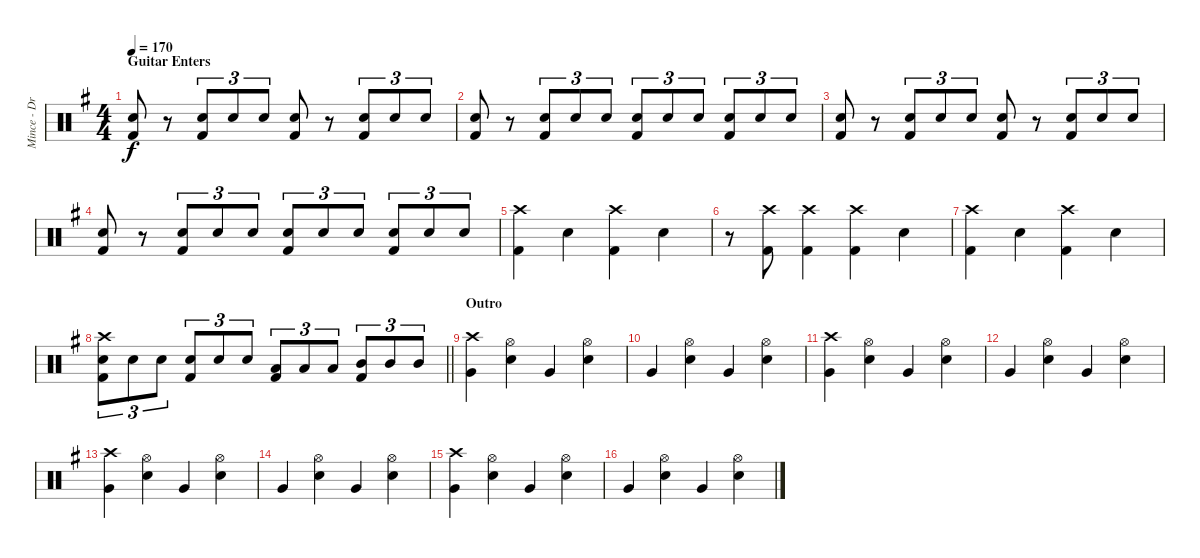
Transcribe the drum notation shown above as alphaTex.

\track ("Mince - Drums" "Mince - Dr") {instrument percussion}
\staff {score}
\articulation defaults
\ts (4 4)
\section ("" "Guitar Enters")
\tempo 170
\clef neutral
\ks g
("Kick (hit) 2" "Snare (hit) 2").8{dy f} r.8 ("Kick (hit) 2" "Snare (hit) 2").8{tu (3 2)} "Snare (hit) 2".8{tu (3 2)} "Snare (hit) 2".8{tu (3 2)} ("Kick (hit) 2" "Snare (hit) 2").8 r.8 ("Kick (hit) 2" "Snare (hit) 2").8{tu (3 2)} "Snare (hit) 2".8{tu (3 2)} "Snare (hit) 2".8{tu (3 2)} |
("Kick (hit) 2" "Snare (hit) 2").8 r.8 ("Kick (hit) 2" "Snare (hit) 2").8{tu (3 2)} "Snare (hit) 2".8{tu (3 2)} "Snare (hit) 2".8{tu (3 2)} ("Kick (hit) 2" "Snare (hit) 2").8{tu (3 2)} "Snare (hit) 2".8{tu (3 2)} "Snare (hit) 2".8{tu (3 2)} ("Kick (hit) 2" "Snare (hit) 2").8{tu (3 2)} "Snare (hit) 2".8{tu (3 2)} "Snare (hit) 2".8{tu (3 2)} |
("Kick (hit) 2" "Snare (hit) 2").8 r.8 ("Kick (hit) 2" "Snare (hit) 2").8{tu (3 2)} "Snare (hit) 2".8{tu (3 2)} "Snare (hit) 2".8{tu (3 2)} ("Kick (hit) 2" "Snare (hit) 2").8 r.8 ("Kick (hit) 2" "Snare (hit) 2").8{tu (3 2)} "Snare (hit) 2".8{tu (3 2)} "Snare (hit) 2".8{tu (3 2)} |
("Kick (hit) 2" "Snare (hit) 2").8 r.8 ("Kick (hit) 2" "Snare (hit) 2").8{tu (3 2)} "Snare (hit) 2".8{tu (3 2)} "Snare (hit) 2".8{tu (3 2)} ("Kick (hit) 2" "Snare (hit) 2").8{tu (3 2)} "Snare (hit) 2".8{tu (3 2)} "Snare (hit) 2".8{tu (3 2)} ("Kick (hit) 2" "Snare (hit) 2").8{tu (3 2)} "Snare (hit) 2".8{tu (3 2)} "Snare (hit) 2".8{tu (3 2)} |
("Kick (hit) 2" "Crash high (hit)").4 "Snare (hit) 2".4 ("Kick (hit) 2" "Crash high (hit)").4 "Snare (hit) 2".4 |
r.8 ("Kick (hit) 2" "Crash high (hit)").8 ("Kick (hit) 2" "Crash high (hit)").4 ("Kick (hit) 2" "Crash high (hit)").4 "Snare (hit) 2".4 |
("Kick (hit) 2" "Crash high (hit)").4 "Snare (hit) 2".4 ("Kick (hit) 2" "Crash high (hit)").4 "Snare (hit) 2".4 |
\barLineRight lightlight
("Kick (hit) 2" "Crash high (hit)" "Snare (hit) 2").8{tu (3 2)} "Snare (hit) 2".8{tu (3 2)} "Snare (hit) 2".8{tu (3 2)} ("Kick (hit) 2" "Snare (hit) 2").8{tu (3 2)} "Snare (hit) 2".8{tu (3 2)} "Snare (hit) 2".8{tu (3 2)} ("Kick (hit) 2" "Low Tom (hit)").8{tu (3 2)} "Low Tom (hit)".8{tu (3 2)} "Low Tom (hit)".8{tu (3 2)} ("Kick (hit) 2" "Mid Tom (hit)").8{tu (3 2)} "Mid Tom (hit)".8{tu (3 2)} "Mid Tom (hit)".8{tu (3 2)} |
\section ("" "Outro")
("Crash high (hit)" "Very Low Tom (hit)").4 ("Snare (hit) 2" "Hi-Hat (open)").4 "Very Low Tom (hit)".4 ("Snare (hit) 2" "Hi-Hat (open)").4 |
"Very Low Tom (hit)".4 ("Snare (hit) 2" "Hi-Hat (open)").4 "Very Low Tom (hit)".4 ("Snare (hit) 2" "Hi-Hat (open)").4 |
("Crash high (hit)" "Very Low Tom (hit)").4 ("Snare (hit) 2" "Hi-Hat (open)").4 "Very Low Tom (hit)".4 ("Snare (hit) 2" "Hi-Hat (open)").4 |
"Very Low Tom (hit)".4 ("Snare (hit) 2" "Hi-Hat (open)").4 "Very Low Tom (hit)".4 ("Snare (hit) 2" "Hi-Hat (open)").4 |
("Crash high (hit)" "Very Low Tom (hit)").4 ("Snare (hit) 2" "Hi-Hat (open)").4 "Very Low Tom (hit)".4 ("Snare (hit) 2" "Hi-Hat (open)").4 |
"Very Low Tom (hit)".4 ("Snare (hit) 2" "Hi-Hat (open)").4 "Very Low Tom (hit)".4 ("Snare (hit) 2" "Hi-Hat (open)").4 |
("Crash high (hit)" "Very Low Tom (hit)").4 ("Snare (hit) 2" "Hi-Hat (open)").4 "Very Low Tom (hit)".4 ("Snare (hit) 2" "Hi-Hat (open)").4 |
"Very Low Tom (hit)".4 ("Snare (hit) 2" "Hi-Hat (open)").4 "Very Low Tom (hit)".4 ("Snare (hit) 2" "Hi-Hat (open)").4
